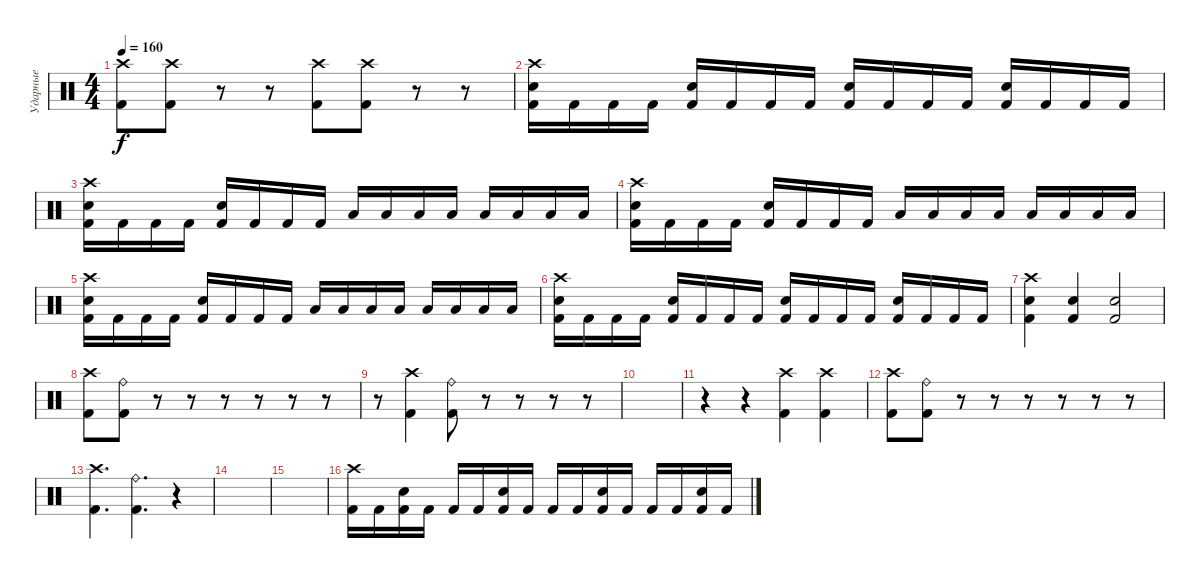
\track ("Ударные" "Ударные") {instrument percussion}
\staff {score}
\articulation defaults
\ts (4 4)
\tempo 160
\clef neutral
\ks c
("Crash high (hit)" "Kick (hit) 2").8{dy f} ("Crash high (hit)" "Kick (hit) 2").8 r.8 r.8 ("Kick (hit) 2" "Crash high (hit)").8 ("Kick (hit) 2" "Crash high (hit)").8 r.8 r.8 |
("Crash high (hit)" "Electric Snare (hit)" "Kick (hit) 2").16 "Kick (hit) 2".16 "Kick (hit) 2".16 "Kick (hit) 2".16 ("Electric Snare (hit)" "Kick (hit) 2").16 "Kick (hit) 2".16 "Kick (hit) 2".16 "Kick (hit) 2".16 ("Kick (hit) 2" "Electric Snare (hit)").16 "Kick (hit) 2".16 "Kick (hit) 2".16 "Kick (hit) 2".16 ("Kick (hit) 2" "Electric Snare (hit)").16 "Kick (hit) 2".16 "Kick (hit) 2".16 "Kick (hit) 2".16 |
("Crash high (hit)" "Electric Snare (hit)" "Kick (hit) 2").16 "Kick (hit) 2".16 "Kick (hit) 2".16 "Kick (hit) 2".16 ("Electric Snare (hit)" "Kick (hit) 2").16 "Kick (hit) 2".16 "Kick (hit) 2".16 "Kick (hit) 2".16 "Low Tom (hit)".16 "Low Tom (hit)".16 "Low Tom (hit)".16 "Low Tom (hit)".16 "Low Floor Tom (hit)".16 "Low Floor Tom (hit)".16 "Low Floor Tom (hit)".16 "Low Floor Tom (hit)".16 |
("Crash high (hit)" "Electric Snare (hit)" "Kick (hit) 2").16 "Kick (hit) 2".16 "Kick (hit) 2".16 "Kick (hit) 2".16 ("Electric Snare (hit)" "Kick (hit) 2").16 "Kick (hit) 2".16 "Kick (hit) 2".16 "Kick (hit) 2".16 "Low Tom (hit)".16 "Low Tom (hit)".16 "Low Tom (hit)".16 "Low Tom (hit)".16 "Low Floor Tom (hit)".16 "Low Floor Tom (hit)".16 "Low Floor Tom (hit)".16 "Low Floor Tom (hit)".16 |
("Crash high (hit)" "Electric Snare (hit)" "Kick (hit) 2").16 "Kick (hit) 2".16 "Kick (hit) 2".16 "Kick (hit) 2".16 ("Electric Snare (hit)" "Kick (hit) 2").16 "Kick (hit) 2".16 "Kick (hit) 2".16 "Kick (hit) 2".16 "Low Tom (hit)".16 "Low Tom (hit)".16 "Low Tom (hit)".16 "Low Tom (hit)".16 "Low Floor Tom (hit)".16 "Low Floor Tom (hit)".16 "Low Floor Tom (hit)".16 "Low Floor Tom (hit)".16 |
("Crash high (hit)" "Electric Snare (hit)" "Kick (hit) 2").16 "Kick (hit) 2".16 "Kick (hit) 2".16 "Kick (hit) 2".16 ("Electric Snare (hit)" "Kick (hit) 2").16 "Kick (hit) 2".16 "Kick (hit) 2".16 "Kick (hit) 2".16 ("Kick (hit) 2" "Electric Snare (hit)").16 "Kick (hit) 2".16 "Kick (hit) 2".16 "Kick (hit) 2".16 ("Kick (hit) 2" "Electric Snare (hit)").16 "Kick (hit) 2".16 "Kick (hit) 2".16 "Kick (hit) 2".16 |
("Crash high (hit)" "Electric Snare (hit)" "Kick (hit) 2").4 ("Electric Snare (hit)" "Kick (hit) 2").4 ("Kick (hit) 2" "Electric Snare (hit)").2 |
("Crash high (hit)" "Kick (hit) 2").8 ("Ride (bell)" "Kick (hit) 2").8 r.8 r.8 r.8 r.8 r.8 r.8 |
r.8 ("Kick (hit) 2" "Crash high (hit)").4 ("Kick (hit) 2" "Ride (bell)").8 r.8 r.8 r.8 r.8 |
|
r.4 r.4 ("Kick (hit) 2" "Crash high (hit)").4 ("Kick (hit) 2" "Crash high (hit)").4 |
("Crash high (hit)" "Kick (hit) 2").8 ("Ride (bell)" "Kick (hit) 2").8 r.8 r.8 r.8 r.8 r.8 r.8 |
("Kick (hit) 2" "Crash high (hit)").4{d} ("Kick (hit) 2" "Ride (bell)").4{d} r.4 |
|
|
("Kick (hit) 2" "Crash high (hit)").16 "Kick (hit) 2".16 ("Kick (hit) 2" "Electric Snare (hit)").16 "Kick (hit) 2".16 "Kick (hit) 2".16 "Kick (hit) 2".16 ("Kick (hit) 2" "Electric Snare (hit)").16 "Kick (hit) 2".16 "Kick (hit) 2".16 "Kick (hit) 2".16 ("Kick (hit) 2" "Electric Snare (hit)").16 "Kick (hit) 2".16 "Kick (hit) 2".16 "Kick (hit) 2".16 ("Kick (hit) 2" "Electric Snare (hit)").16 "Kick (hit) 2".16
